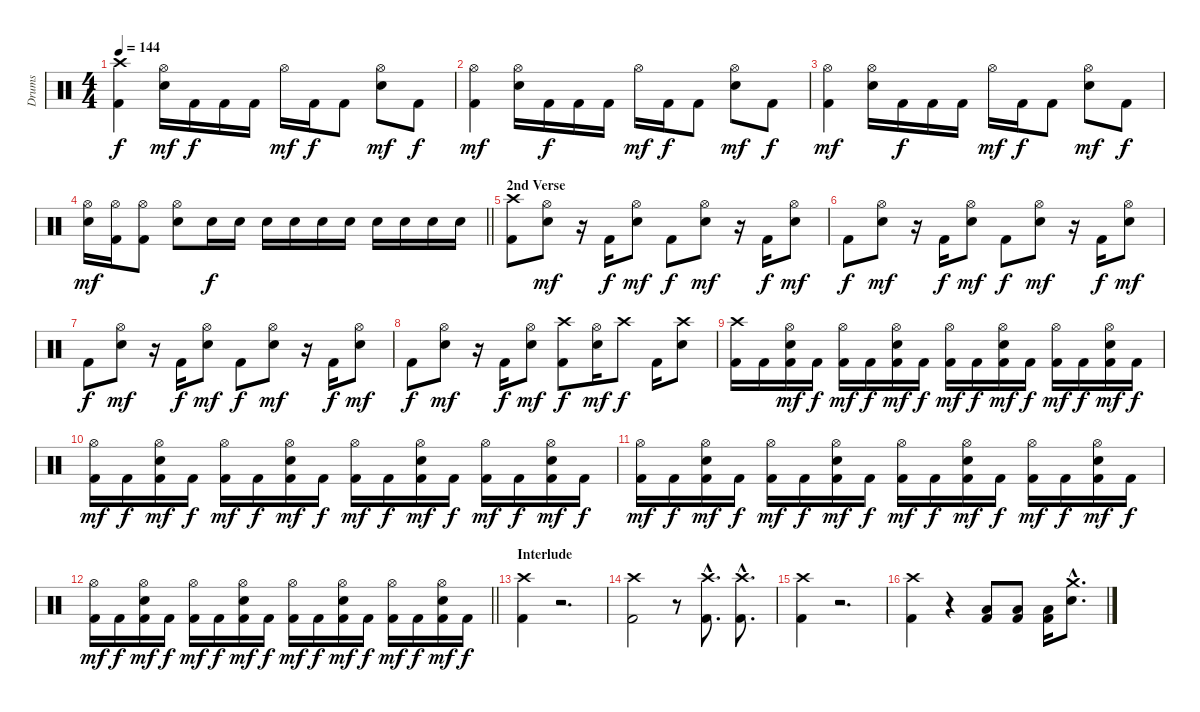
\track ("Drums" "Drums") {instrument percussion}
\staff {score}
\articulation defaults
\ts (4 4)
\tempo 144
\clef neutral
\ks c
("Crash high (hit)" "Kick (hit) 2").4{dy f} ("Hi-Hat (open)" "Electric Snare (hit)").16{dy mf} "Kick (hit) 2".16{dy f} "Kick (hit) 2".16 "Kick (hit) 2".16 "Hi-Hat (open)".16{dy mf} "Kick (hit) 2".16{dy f} "Kick (hit) 2".8 ("Hi-Hat (open)" "Electric Snare (hit)").8{dy mf} "Kick (hit) 2".8{dy f} |
("Hi-Hat (open)" "Kick (hit) 2").4{dy mf} ("Hi-Hat (open)" "Electric Snare (hit)").16 "Kick (hit) 2".16{dy f} "Kick (hit) 2".16 "Kick (hit) 2".16 "Hi-Hat (open)".16{dy mf} "Kick (hit) 2".16{dy f} "Kick (hit) 2".8 ("Hi-Hat (open)" "Electric Snare (hit)").8{dy mf} "Kick (hit) 2".8{dy f} |
("Hi-Hat (open)" "Kick (hit) 2").4{dy mf} ("Hi-Hat (open)" "Electric Snare (hit)").16 "Kick (hit) 2".16{dy f} "Kick (hit) 2".16 "Kick (hit) 2".16 "Hi-Hat (open)".16{dy mf} "Kick (hit) 2".16{dy f} "Kick (hit) 2".8 ("Hi-Hat (open)" "Electric Snare (hit)").8{dy mf} "Kick (hit) 2".8{dy f} |
\barLineRight lightlight
("Hi-Hat (open)" "Electric Snare (hit)").16{dy mf} ("Hi-Hat (open)" "Kick (hit) 2").16 ("Hi-Hat (open)" "Kick (hit) 2").8 ("Hi-Hat (open)" "Electric Snare (hit)").8 "Electric Snare (hit)".16{dy f} "Electric Snare (hit)".16 "Electric Snare (hit)".16 "Electric Snare (hit)".16 "Electric Snare (hit)".16 "Electric Snare (hit)".16 "Electric Snare (hit)".16 "Electric Snare (hit)".16 "Electric Snare (hit)".16 "Electric Snare (hit)".16 |
\section ("" "2nd Verse")
("Crash high (hit)" "Kick (hit) 2").8 ("Hi-Hat (open)" "Electric Snare (hit)").8{dy mf} r.16 "Kick (hit) 2".16{dy f} ("Hi-Hat (open)" "Electric Snare (hit)").8{dy mf} "Kick (hit) 2".8{dy f} ("Hi-Hat (open)" "Electric Snare (hit)").8{dy mf} r.16 "Kick (hit) 2".16{dy f} ("Hi-Hat (open)" "Electric Snare (hit)").8{dy mf} |
"Kick (hit) 2".8{dy f} ("Hi-Hat (open)" "Electric Snare (hit)").8{dy mf} r.16 "Kick (hit) 2".16{dy f} ("Hi-Hat (open)" "Electric Snare (hit)").8{dy mf} "Kick (hit) 2".8{dy f} ("Hi-Hat (open)" "Electric Snare (hit)").8{dy mf} r.16 "Kick (hit) 2".16{dy f} ("Hi-Hat (open)" "Electric Snare (hit)").8{dy mf} |
"Kick (hit) 2".8{dy f} ("Hi-Hat (open)" "Electric Snare (hit)").8{dy mf} r.16 "Kick (hit) 2".16{dy f} ("Hi-Hat (open)" "Electric Snare (hit)").8{dy mf} "Kick (hit) 2".8{dy f} ("Hi-Hat (open)" "Electric Snare (hit)").8{dy mf} r.16 "Kick (hit) 2".16{dy f} ("Hi-Hat (open)" "Electric Snare (hit)").8{dy mf} |
"Kick (hit) 2".8{dy f} ("Hi-Hat (open)" "Electric Snare (hit)").8{dy mf} r.16 "Kick (hit) 2".16{dy f} ("Hi-Hat (open)" "Electric Snare (hit)").8{dy mf} ("Crash high (hit)" "Kick (hit) 2").8{dy f} ("Hi-Hat (open)" "Electric Snare (hit)").16{dy mf} "Crash high (hit)".8{dy f} "Kick (hit) 2".16 ("Crash high (hit)" "Electric Snare (hit)").8 |
("Crash high (hit)" "Kick (hit) 2").16 "Kick (hit) 2".16 ("Hi-Hat (open)" "Electric Snare (hit)" "Kick (hit) 2").16{dy mf} "Kick (hit) 2".16{dy f} ("Hi-Hat (open)" "Kick (hit) 2").16{dy mf} "Kick (hit) 2".16{dy f} ("Hi-Hat (open)" "Electric Snare (hit)" "Kick (hit) 2").16{dy mf} "Kick (hit) 2".16{dy f} ("Hi-Hat (open)" "Kick (hit) 2").16{dy mf} "Kick (hit) 2".16{dy f} ("Hi-Hat (open)" "Electric Snare (hit)" "Kick (hit) 2").16{dy mf} "Kick (hit) 2".16{dy f} ("Hi-Hat (open)" "Kick (hit) 2").16{dy mf} "Kick (hit) 2".16{dy f} ("Hi-Hat (open)" "Electric Snare (hit)" "Kick (hit) 2").16{dy mf} "Kick (hit) 2".16{dy f} |
("Hi-Hat (open)" "Kick (hit) 2").16{dy mf} "Kick (hit) 2".16{dy f} ("Hi-Hat (open)" "Electric Snare (hit)" "Kick (hit) 2").16{dy mf} "Kick (hit) 2".16{dy f} ("Hi-Hat (open)" "Kick (hit) 2").16{dy mf} "Kick (hit) 2".16{dy f} ("Hi-Hat (open)" "Electric Snare (hit)" "Kick (hit) 2").16{dy mf} "Kick (hit) 2".16{dy f} ("Hi-Hat (open)" "Kick (hit) 2").16{dy mf} "Kick (hit) 2".16{dy f} ("Hi-Hat (open)" "Electric Snare (hit)" "Kick (hit) 2").16{dy mf} "Kick (hit) 2".16{dy f} ("Hi-Hat (open)" "Kick (hit) 2").16{dy mf} "Kick (hit) 2".16{dy f} ("Hi-Hat (open)" "Electric Snare (hit)" "Kick (hit) 2").16{dy mf} "Kick (hit) 2".16{dy f} |
("Hi-Hat (open)" "Kick (hit) 2").16{dy mf} "Kick (hit) 2".16{dy f} ("Hi-Hat (open)" "Electric Snare (hit)" "Kick (hit) 2").16{dy mf} "Kick (hit) 2".16{dy f} ("Hi-Hat (open)" "Kick (hit) 2").16{dy mf} "Kick (hit) 2".16{dy f} ("Hi-Hat (open)" "Electric Snare (hit)" "Kick (hit) 2").16{dy mf} "Kick (hit) 2".16{dy f} ("Hi-Hat (open)" "Kick (hit) 2").16{dy mf} "Kick (hit) 2".16{dy f} ("Hi-Hat (open)" "Electric Snare (hit)" "Kick (hit) 2").16{dy mf} "Kick (hit) 2".16{dy f} ("Hi-Hat (open)" "Kick (hit) 2").16{dy mf} "Kick (hit) 2".16{dy f} ("Hi-Hat (open)" "Electric Snare (hit)" "Kick (hit) 2").16{dy mf} "Kick (hit) 2".16{dy f} |
\barLineRight lightlight
("Hi-Hat (open)" "Kick (hit) 2").16{dy mf} "Kick (hit) 2".16{dy f} ("Hi-Hat (open)" "Electric Snare (hit)" "Kick (hit) 2").16{dy mf} "Kick (hit) 2".16{dy f} ("Hi-Hat (open)" "Kick (hit) 2").16{dy mf} "Kick (hit) 2".16{dy f} ("Hi-Hat (open)" "Electric Snare (hit)" "Kick (hit) 2").16{dy mf} "Kick (hit) 2".16{dy f} ("Hi-Hat (open)" "Kick (hit) 2").16{dy mf} "Kick (hit) 2".16{dy f} ("Hi-Hat (open)" "Electric Snare (hit)" "Kick (hit) 2").16{dy mf} "Kick (hit) 2".16{dy f} ("Hi-Hat (open)" "Kick (hit) 2").16{dy mf} "Kick (hit) 2".16{dy f} ("Hi-Hat (open)" "Electric Snare (hit)" "Kick (hit) 2").16{dy mf} "Kick (hit) 2".16{dy f} |
\section ("" "Interlude")
("Crash high (hit)" "Kick (hit) 2").4 r.2{d} |
("Crash high (hit)" "Kick (hit) 2").2 r.8 ("Crash high (hit)"{hac} "Kick (hit) 2"{hac}).8{d} ("Crash high (hit)"{hac} "Kick (hit) 2"{hac}).8{d} |
("Crash high (hit)" "Kick (hit) 2").4 r.2{d} |
("Crash high (hit)" "Kick (hit) 2").4 r.4 ("Low Tom (hit)" "Kick (hit) 2").8 ("Low Tom (hit)" "Kick (hit) 2").8 ("Low Tom (hit)" "Kick (hit) 2").16 ("Crash medium (hit)"{hac} "Electric Snare (hit)"{hac}).8{d}
